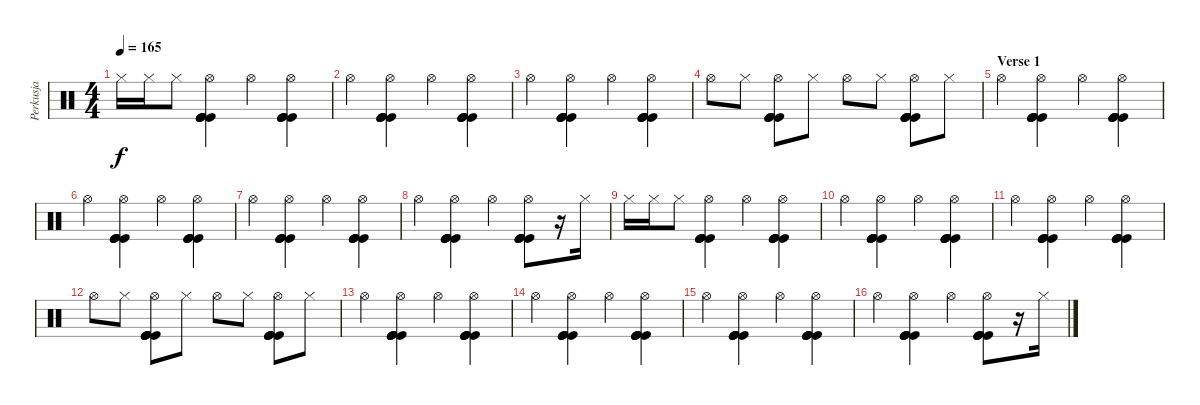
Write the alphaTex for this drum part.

\track ("Perkusja" "Perkusja") {instrument percussion}
\staff {score}
\articulation defaults
\ts (4 4)
\tempo 165
\clef neutral
\ks c "Hi-Hat (closed)".16{dy f} "Hi-Hat (closed)".16 "Hi-Hat (closed)".8
("Hi-Hat (open)" "Kick (hit)" "Kick (hit)" "Kick (hit)" "Kick (hit)").4 "Hi-Hat (open)".4 ("Hi-Hat (open)" "Kick (hit)" "Kick (hit)" "Kick (hit)" "Kick (hit)").4 |
"Hi-Hat (open)".4 ("Hi-Hat (open)" "Kick (hit)" "Kick (hit)" "Kick (hit)" "Kick (hit)").4 "Hi-Hat (open)".4 ("Hi-Hat (open)" "Kick (hit)" "Kick (hit)" "Kick (hit)" "Kick (hit)").4 |
"Hi-Hat (open)".4 ("Hi-Hat (open)" "Kick (hit)" "Kick (hit)" "Kick (hit)" "Kick (hit)").4 "Hi-Hat (open)".4 ("Hi-Hat (open)" "Kick (hit)" "Kick (hit)" "Kick (hit)" "Kick (hit)").4 |
"Hi-Hat (open)".8 "Hi-Hat (closed)".8 ("Hi-Hat (open)" "Kick (hit)" "Kick (hit)" "Kick (hit)" "Kick (hit)").8 "Hi-Hat (closed)".8 "Hi-Hat (open)".8 "Hi-Hat (closed)".8 ("Hi-Hat (open)" "Kick (hit)" "Kick (hit)" "Kick (hit)" "Kick (hit)").8 "Hi-Hat (closed)".8 |
\section ("" "Verse 1")
"Hi-Hat (open)".4 ("Hi-Hat (open)" "Kick (hit)" "Kick (hit)" "Kick (hit)" "Kick (hit)").4 "Hi-Hat (open)".4 ("Hi-Hat (open)" "Kick (hit)" "Kick (hit)" "Kick (hit)" "Kick (hit)").4 |
"Hi-Hat (open)".4 ("Hi-Hat (open)" "Kick (hit)" "Kick (hit)" "Kick (hit)" "Kick (hit)").4 "Hi-Hat (open)".4 ("Hi-Hat (open)" "Kick (hit)" "Kick (hit)" "Kick (hit)" "Kick (hit)").4 |
"Hi-Hat (open)".4 ("Hi-Hat (open)" "Kick (hit)" "Kick (hit)" "Kick (hit)" "Kick (hit)").4 "Hi-Hat (open)".4 ("Hi-Hat (open)" "Kick (hit)" "Kick (hit)" "Kick (hit)" "Kick (hit)").4 |
"Hi-Hat (open)".4 ("Hi-Hat (open)" "Kick (hit)" "Kick (hit)" "Kick (hit)" "Kick (hit)").4 "Hi-Hat (open)".4 ("Hi-Hat (open)" "Kick (hit)" "Kick (hit)" "Kick (hit)" "Kick (hit)").8 r.16 "Hi-Hat (closed)".16 |
"Hi-Hat (closed)".16 "Hi-Hat (closed)".16 "Hi-Hat (closed)".8 ("Hi-Hat (open)" "Kick (hit)" "Kick (hit)" "Kick (hit)" "Kick (hit)").4 "Hi-Hat (open)".4 ("Hi-Hat (open)" "Kick (hit)" "Kick (hit)" "Kick (hit)" "Kick (hit)").4 |
"Hi-Hat (open)".4 ("Hi-Hat (open)" "Kick (hit)" "Kick (hit)" "Kick (hit)" "Kick (hit)").4 "Hi-Hat (open)".4 ("Hi-Hat (open)" "Kick (hit)" "Kick (hit)" "Kick (hit)" "Kick (hit)").4 |
"Hi-Hat (open)".4 ("Hi-Hat (open)" "Kick (hit)" "Kick (hit)" "Kick (hit)" "Kick (hit)").4 "Hi-Hat (open)".4 ("Hi-Hat (open)" "Kick (hit)" "Kick (hit)" "Kick (hit)" "Kick (hit)").4 |
"Hi-Hat (open)".8 "Hi-Hat (closed)".8 ("Hi-Hat (open)" "Kick (hit)" "Kick (hit)" "Kick (hit)" "Kick (hit)").8 "Hi-Hat (closed)".8 "Hi-Hat (open)".8 "Hi-Hat (closed)".8 ("Hi-Hat (open)" "Kick (hit)" "Kick (hit)" "Kick (hit)" "Kick (hit)").8 "Hi-Hat (closed)".8 |
"Hi-Hat (open)".4 ("Hi-Hat (open)" "Kick (hit)" "Kick (hit)" "Kick (hit)" "Kick (hit)").4 "Hi-Hat (open)".4 ("Hi-Hat (open)" "Kick (hit)" "Kick (hit)" "Kick (hit)" "Kick (hit)").4 |
"Hi-Hat (open)".4 ("Hi-Hat (open)" "Kick (hit)" "Kick (hit)" "Kick (hit)" "Kick (hit)").4 "Hi-Hat (open)".4 ("Hi-Hat (open)" "Kick (hit)" "Kick (hit)" "Kick (hit)" "Kick (hit)").4 |
"Hi-Hat (open)".4 ("Hi-Hat (open)" "Kick (hit)" "Kick (hit)" "Kick (hit)" "Kick (hit)").4 "Hi-Hat (open)".4 ("Hi-Hat (open)" "Kick (hit)" "Kick (hit)" "Kick (hit)" "Kick (hit)").4 |
"Hi-Hat (open)".4 ("Hi-Hat (open)" "Kick (hit)" "Kick (hit)" "Kick (hit)" "Kick (hit)").4 "Hi-Hat (open)".4 ("Hi-Hat (open)" "Kick (hit)" "Kick (hit)" "Kick (hit)" "Kick (hit)").8 r.16 "Hi-Hat (closed)".16
